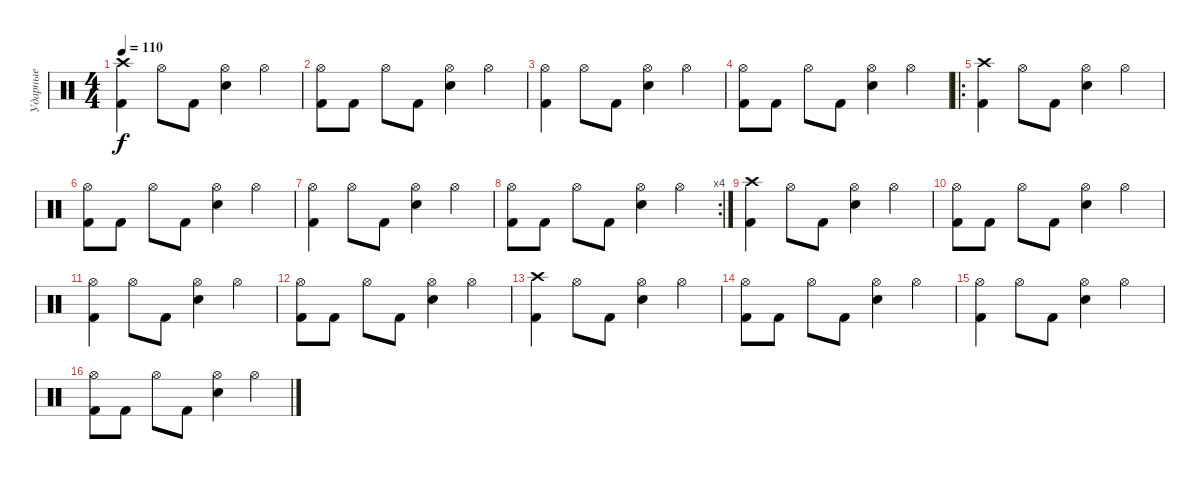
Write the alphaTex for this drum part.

\track ("Ударные" "Ударные") {instrument percussion}
\staff {score}
\articulation defaults
\ts (4 4)
\tempo 110
\clef neutral
\ks c
("Crash high (hit)" "Kick (hit) 2").4{dy f} "Hi-Hat (open)".8 "Kick (hit) 2".8 ("Hi-Hat (open)" "Snare (hit) 2").4 "Hi-Hat (open)".4 |
("Hi-Hat (open)" "Kick (hit) 2").8 "Kick (hit) 2".8 "Hi-Hat (open)".8 "Kick (hit) 2".8 ("Hi-Hat (open)" "Snare (hit) 2").4 "Hi-Hat (open)".4 |
("Hi-Hat (open)" "Kick (hit) 2").4 "Hi-Hat (open)".8 "Kick (hit) 2".8 ("Hi-Hat (open)" "Snare (hit) 2").4 "Hi-Hat (open)".4 |
("Hi-Hat (open)" "Kick (hit) 2").8 "Kick (hit) 2".8 "Hi-Hat (open)".8 "Kick (hit) 2".8 ("Hi-Hat (open)" "Snare (hit) 2").4 "Hi-Hat (open)".4 |
\ro
("Crash high (hit)" "Kick (hit) 2").4 "Hi-Hat (open)".8 "Kick (hit) 2".8 ("Hi-Hat (open)" "Snare (hit) 2").4 "Hi-Hat (open)".4 |
("Hi-Hat (open)" "Kick (hit) 2").8 "Kick (hit) 2".8 "Hi-Hat (open)".8 "Kick (hit) 2".8 ("Hi-Hat (open)" "Snare (hit) 2").4 "Hi-Hat (open)".4 |
("Hi-Hat (open)" "Kick (hit) 2").4 "Hi-Hat (open)".8 "Kick (hit) 2".8 ("Hi-Hat (open)" "Snare (hit) 2").4 "Hi-Hat (open)".4 |
\rc 4
("Hi-Hat (open)" "Kick (hit) 2").8 "Kick (hit) 2".8 "Hi-Hat (open)".8 "Kick (hit) 2".8 ("Hi-Hat (open)" "Snare (hit) 2").4 "Hi-Hat (open)".4 |
("Crash high (hit)" "Kick (hit) 2").4 "Hi-Hat (open)".8 "Kick (hit) 2".8 ("Hi-Hat (open)" "Snare (hit) 2").4 "Hi-Hat (open)".4 |
("Hi-Hat (open)" "Kick (hit) 2").8 "Kick (hit) 2".8 "Hi-Hat (open)".8 "Kick (hit) 2".8 ("Hi-Hat (open)" "Snare (hit) 2").4 "Hi-Hat (open)".4 |
("Hi-Hat (open)" "Kick (hit) 2").4 "Hi-Hat (open)".8 "Kick (hit) 2".8 ("Hi-Hat (open)" "Snare (hit) 2").4 "Hi-Hat (open)".4 |
("Hi-Hat (open)" "Kick (hit) 2").8 "Kick (hit) 2".8 "Hi-Hat (open)".8 "Kick (hit) 2".8 ("Hi-Hat (open)" "Snare (hit) 2").4 "Hi-Hat (open)".4 |
("Crash high (hit)" "Kick (hit) 2").4 "Hi-Hat (open)".8 "Kick (hit) 2".8 ("Hi-Hat (open)" "Snare (hit) 2").4 "Hi-Hat (open)".4 |
("Hi-Hat (open)" "Kick (hit) 2").8 "Kick (hit) 2".8 "Hi-Hat (open)".8 "Kick (hit) 2".8 ("Hi-Hat (open)" "Snare (hit) 2").4 "Hi-Hat (open)".4 |
("Hi-Hat (open)" "Kick (hit) 2").4 "Hi-Hat (open)".8 "Kick (hit) 2".8 ("Hi-Hat (open)" "Snare (hit) 2").4 "Hi-Hat (open)".4 |
("Hi-Hat (open)" "Kick (hit) 2").8 "Kick (hit) 2".8 "Hi-Hat (open)".8 "Kick (hit) 2".8 ("Hi-Hat (open)" "Snare (hit) 2").4 "Hi-Hat (open)".4
